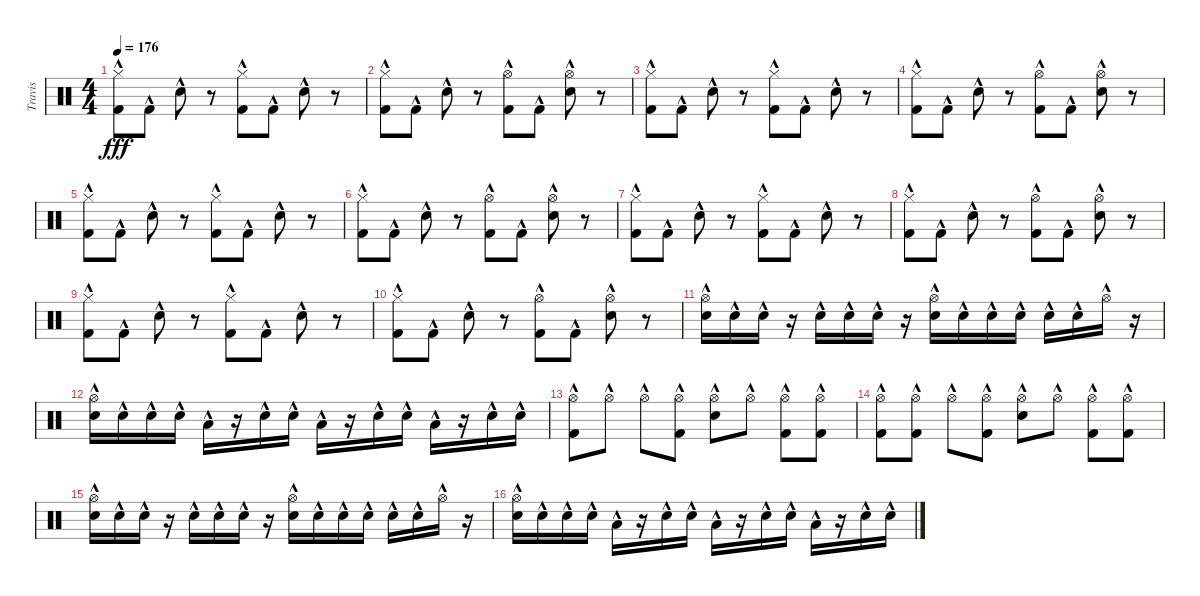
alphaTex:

\track ("Travis" "Travis") {instrument percussion}
\staff {score}
\articulation defaults
\ts (4 4)
\tempo 176
\clef neutral
\ks c
("Kick (hit) 2"{hac} "Hi-Hat (closed)"{hac}).8{dy fff} "Kick (hit) 2"{hac}.8 "Snare (hit) 2"{hac}.8 r.8 ("Kick (hit) 2"{hac} "Hi-Hat (closed)"{hac}).8 "Kick (hit) 2"{hac}.8 "Snare (hit) 2"{hac}.8 r.8 |
("Kick (hit) 2"{hac} "Hi-Hat (closed)"{hac}).8 "Kick (hit) 2"{hac}.8 "Snare (hit) 2"{hac}.8 r.8 ("Kick (hit) 2"{hac} "Hi-Hat (open)"{hac}).8 "Kick (hit) 2"{hac}.8 ("Snare (hit) 2"{hac} "Hi-Hat (open)"{hac}).8 r.8 |
("Kick (hit) 2"{hac} "Hi-Hat (closed)"{hac}).8 "Kick (hit) 2"{hac}.8 "Snare (hit) 2"{hac}.8 r.8 ("Kick (hit) 2"{hac} "Hi-Hat (closed)"{hac}).8 "Kick (hit) 2"{hac}.8 "Snare (hit) 2"{hac}.8 r.8 |
("Kick (hit) 2"{hac} "Hi-Hat (closed)"{hac}).8 "Kick (hit) 2"{hac}.8 "Snare (hit) 2"{hac}.8 r.8 ("Kick (hit) 2"{hac} "Hi-Hat (open)"{hac}).8 "Kick (hit) 2"{hac}.8 ("Snare (hit) 2"{hac} "Hi-Hat (open)"{hac}).8 r.8 |
("Kick (hit) 2"{hac} "Hi-Hat (closed)"{hac}).8 "Kick (hit) 2"{hac}.8 "Snare (hit) 2"{hac}.8 r.8 ("Kick (hit) 2"{hac} "Hi-Hat (closed)"{hac}).8 "Kick (hit) 2"{hac}.8 "Snare (hit) 2"{hac}.8 r.8 |
("Kick (hit) 2"{hac} "Hi-Hat (closed)"{hac}).8 "Kick (hit) 2"{hac}.8 "Snare (hit) 2"{hac}.8 r.8 ("Kick (hit) 2"{hac} "Hi-Hat (open)"{hac}).8 "Kick (hit) 2"{hac}.8 ("Snare (hit) 2"{hac} "Hi-Hat (open)"{hac}).8 r.8 |
("Kick (hit) 2"{hac} "Hi-Hat (closed)"{hac}).8 "Kick (hit) 2"{hac}.8 "Snare (hit) 2"{hac}.8 r.8 ("Kick (hit) 2"{hac} "Hi-Hat (closed)"{hac}).8 "Kick (hit) 2"{hac}.8 "Snare (hit) 2"{hac}.8 r.8 |
("Kick (hit) 2"{hac} "Hi-Hat (closed)"{hac}).8 "Kick (hit) 2"{hac}.8 "Snare (hit) 2"{hac}.8 r.8 ("Kick (hit) 2"{hac} "Hi-Hat (open)"{hac}).8 "Kick (hit) 2"{hac}.8 ("Snare (hit) 2"{hac} "Hi-Hat (open)"{hac}).8 r.8 |
("Kick (hit) 2"{hac} "Hi-Hat (closed)"{hac}).8 "Kick (hit) 2"{hac}.8 "Snare (hit) 2"{hac}.8 r.8 ("Kick (hit) 2"{hac} "Hi-Hat (closed)"{hac}).8 "Kick (hit) 2"{hac}.8 "Snare (hit) 2"{hac}.8 r.8 |
("Kick (hit) 2"{hac} "Hi-Hat (closed)"{hac}).8 "Kick (hit) 2"{hac}.8 "Snare (hit) 2"{hac}.8 r.8 ("Kick (hit) 2"{hac} "Hi-Hat (open)"{hac}).8 "Kick (hit) 2"{hac}.8 ("Snare (hit) 2"{hac} "Hi-Hat (open)"{hac}).8 r.8 |
("Snare (hit) 2"{hac} "Hi-Hat (open)"{hac}).16 "Snare (hit) 2"{hac}.16 "Snare (hit) 2"{hac}.16 r.16 "Snare (hit) 2"{hac}.16 "Snare (hit) 2"{hac}.16 "Snare (hit) 2"{hac}.16 r.16 ("Snare (hit) 2"{hac} "Hi-Hat (open)"{hac}).16 "Snare (hit) 2"{hac}.16 "Snare (hit) 2"{hac}.16 "Snare (hit) 2"{hac}.16 "Snare (hit) 2"{hac}.16 "Snare (hit) 2"{hac}.16 "Hi-Hat (open)"{hac}.16 r.16 |
("Snare (hit) 2"{hac} "Hi-Hat (open)"{hac}).16 "Snare (hit) 2"{hac}.16 "Snare (hit) 2"{hac}.16 "Snare (hit) 2"{hac}.16 "Low Tom (hit)"{hac}.16 r.16 "Snare (hit) 2"{hac}.16 "Snare (hit) 2"{hac}.16 "Low Tom (hit)"{hac}.16 r.16 "Snare (hit) 2"{hac}.16 "Snare (hit) 2"{hac}.16 "Low Tom (hit)"{hac}.16 r.16 "Snare (hit) 2"{hac}.16 "Snare (hit) 2"{hac}.16 |
("Kick (hit) 2"{hac} "Hi-Hat (open)"{hac}).8 "Hi-Hat (open)"{hac}.8 "Hi-Hat (open)"{hac}.8 ("Kick (hit) 2"{hac} "Hi-Hat (open)"{hac}).8 ("Snare (hit) 2"{hac} "Hi-Hat (open)"{hac}).8 "Hi-Hat (open)"{hac}.8 ("Kick (hit) 2"{hac} "Hi-Hat (open)"{hac}).8 ("Kick (hit) 2"{hac} "Hi-Hat (open)"{hac}).8 |
("Kick (hit) 2"{hac} "Hi-Hat (open)"{hac}).8 ("Kick (hit) 2"{hac} "Hi-Hat (open)"{hac}).8 "Hi-Hat (open)"{hac}.8 ("Kick (hit) 2"{hac} "Hi-Hat (open)"{hac}).8 ("Snare (hit) 2"{hac} "Hi-Hat (open)"{hac}).8 "Hi-Hat (open)"{hac}.8 ("Kick (hit) 2"{hac} "Hi-Hat (open)"{hac}).8 ("Kick (hit) 2"{hac} "Hi-Hat (open)"{hac}).8 |
("Snare (hit) 2"{hac} "Hi-Hat (open)"{hac}).16 "Snare (hit) 2"{hac}.16 "Snare (hit) 2"{hac}.16 r.16 "Snare (hit) 2"{hac}.16 "Snare (hit) 2"{hac}.16 "Snare (hit) 2"{hac}.16 r.16 ("Snare (hit) 2"{hac} "Hi-Hat (open)"{hac}).16 "Snare (hit) 2"{hac}.16 "Snare (hit) 2"{hac}.16 "Snare (hit) 2"{hac}.16 "Snare (hit) 2"{hac}.16 "Snare (hit) 2"{hac}.16 "Hi-Hat (open)"{hac}.16 r.16 |
("Snare (hit) 2"{hac} "Hi-Hat (open)"{hac}).16 "Snare (hit) 2"{hac}.16 "Snare (hit) 2"{hac}.16 "Snare (hit) 2"{hac}.16 "Low Tom (hit)"{hac}.16 r.16 "Snare (hit) 2"{hac}.16 "Snare (hit) 2"{hac}.16 "Low Tom (hit)"{hac}.16 r.16 "Snare (hit) 2"{hac}.16 "Snare (hit) 2"{hac}.16 "Low Tom (hit)"{hac}.16 r.16 "Snare (hit) 2"{hac}.16 "Snare (hit) 2"{hac}.16
